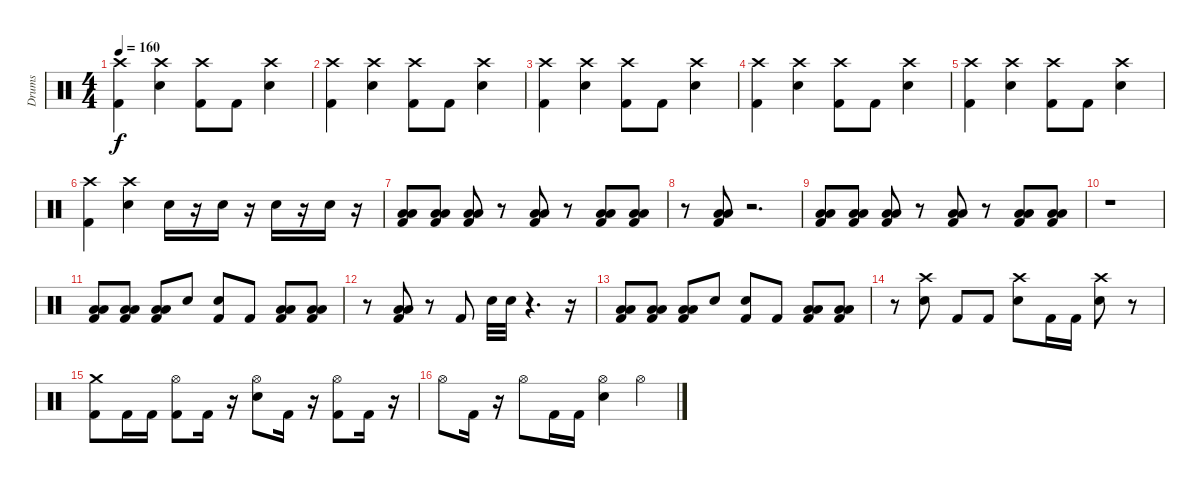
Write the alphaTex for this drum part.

\track ("Drums" "Drums") {instrument percussion}
\staff {score}
\articulation defaults
\ts (4 4)
\tempo 160
\clef neutral
\ks c
("Kick (hit) 2" "Crash high (hit)").4{dy f} ("Electric Snare (hit)" "Crash high (hit)").4 ("Kick (hit) 2" "Crash high (hit)").8 "Kick (hit) 2".8 ("Electric Snare (hit)" "Crash high (hit)").4 |
("Kick (hit) 2" "Crash high (hit)").4 ("Electric Snare (hit)" "Crash high (hit)").4 ("Kick (hit) 2" "Crash high (hit)").8 "Kick (hit) 2".8 ("Electric Snare (hit)" "Crash high (hit)").4 |
("Kick (hit) 2" "Crash high (hit)").4 ("Electric Snare (hit)" "Crash high (hit)").4 ("Kick (hit) 2" "Crash high (hit)").8 "Kick (hit) 2".8 ("Electric Snare (hit)" "Crash high (hit)").4 |
("Kick (hit) 2" "Crash high (hit)").4 ("Electric Snare (hit)" "Crash high (hit)").4 ("Kick (hit) 2" "Crash high (hit)").8 "Kick (hit) 2".8 ("Electric Snare (hit)" "Crash high (hit)").4 |
("Kick (hit) 2" "Crash high (hit)").4 ("Electric Snare (hit)" "Crash high (hit)").4 ("Kick (hit) 2" "Crash high (hit)").8 "Kick (hit) 2".8 ("Electric Snare (hit)" "Crash high (hit)").4 |
("Kick (hit) 2" "Crash high (hit)").4 ("Electric Snare (hit)" "Crash high (hit)").4 "Electric Snare (hit)".16 r.16 "Electric Snare (hit)".16 r.16 "Electric Snare (hit)".16 r.16 "Electric Snare (hit)".16 r.16 |
("Kick (hit) 2" "Low Tom (hit)" "Low Floor Tom (hit)").8 ("Kick (hit) 2" "Low Tom (hit)" "Low Floor Tom (hit)").8 ("Kick (hit) 2" "Low Tom (hit)" "Low Floor Tom (hit)").8 r.8 ("Kick (hit) 2" "Low Tom (hit)" "Low Floor Tom (hit)").8 r.8 ("Kick (hit) 2" "Low Tom (hit)" "Low Floor Tom (hit)").8 ("Kick (hit) 2" "Low Tom (hit)" "Low Floor Tom (hit)").8 |
r.8 ("Kick (hit) 2" "Low Tom (hit)" "Low Floor Tom (hit)").8 r.2{d} |
("Kick (hit) 2" "Low Tom (hit)" "Low Floor Tom (hit)").8 ("Kick (hit) 2" "Low Tom (hit)" "Low Floor Tom (hit)").8 ("Kick (hit) 2" "Low Tom (hit)" "Low Floor Tom (hit)").8 r.8 ("Kick (hit) 2" "Low Tom (hit)" "Low Floor Tom (hit)").8 r.8 ("Kick (hit) 2" "Low Tom (hit)" "Low Floor Tom (hit)").8 ("Kick (hit) 2" "Low Tom (hit)" "Low Floor Tom (hit)").8 |
r.1 |
("Kick (hit) 2" "Low Floor Tom (hit)" "Low Tom (hit)").8 ("Kick (hit) 2" "Low Tom (hit)" "Low Floor Tom (hit)").8 ("Kick (hit) 2" "Low Floor Tom (hit)" "Low Tom (hit)").8 "Electric Snare (hit)".8 ("Kick (hit) 2" "Electric Snare (hit)").8 "Kick (hit) 2".8 ("Kick (hit) 2" "Low Floor Tom (hit)" "Low Tom (hit)").8 ("Kick (hit) 2" "Low Tom (hit)" "Low Floor Tom (hit)").8 |
r.8 ("Kick (hit) 2" "Low Tom (hit)" "Low Floor Tom (hit)").8 r.8 "Kick (hit) 2".8 "Electric Snare (hit)".32 "Electric Snare (hit)".32 r.4{d} r.16 |
("Kick (hit) 2" "Low Floor Tom (hit)" "Low Tom (hit)").8 ("Kick (hit) 2" "Low Tom (hit)" "Low Floor Tom (hit)").8 ("Kick (hit) 2" "Low Floor Tom (hit)" "Low Tom (hit)").8 "Electric Snare (hit)".8 ("Kick (hit) 2" "Electric Snare (hit)").8 "Kick (hit) 2".8 ("Kick (hit) 2" "Low Floor Tom (hit)" "Low Tom (hit)").8 ("Kick (hit) 2" "Low Tom (hit)" "Low Floor Tom (hit)").8 |
r.8 ("Electric Snare (hit)" "Crash high (hit)").8 "Kick (hit) 2".8 "Kick (hit) 2".8 ("Electric Snare (hit)" "Crash high (hit)").8 "Kick (hit) 2".16 "Kick (hit) 2".16 ("Electric Snare (hit)" "Crash high (hit)").8 r.8 |
("Kick (hit) 2" "Crash medium (hit)").8 "Kick (hit) 2".16 "Kick (hit) 2".16 ("Kick (hit) 2" "Hi-Hat (open)").8 "Kick (hit) 2".16 r.16 ("Electric Snare (hit)" "Hi-Hat (open)").8 "Kick (hit) 2".16 r.16 ("Kick (hit) 2" "Hi-Hat (open)").8 "Kick (hit) 2".16 r.16 |
"Hi-Hat (open)".8 "Kick (hit) 2".16 r.16 "Hi-Hat (open)".8 "Kick (hit) 2".16 "Kick (hit) 2".16 ("Electric Snare (hit)" "Hi-Hat (open)").4 "Hi-Hat (open)".4
